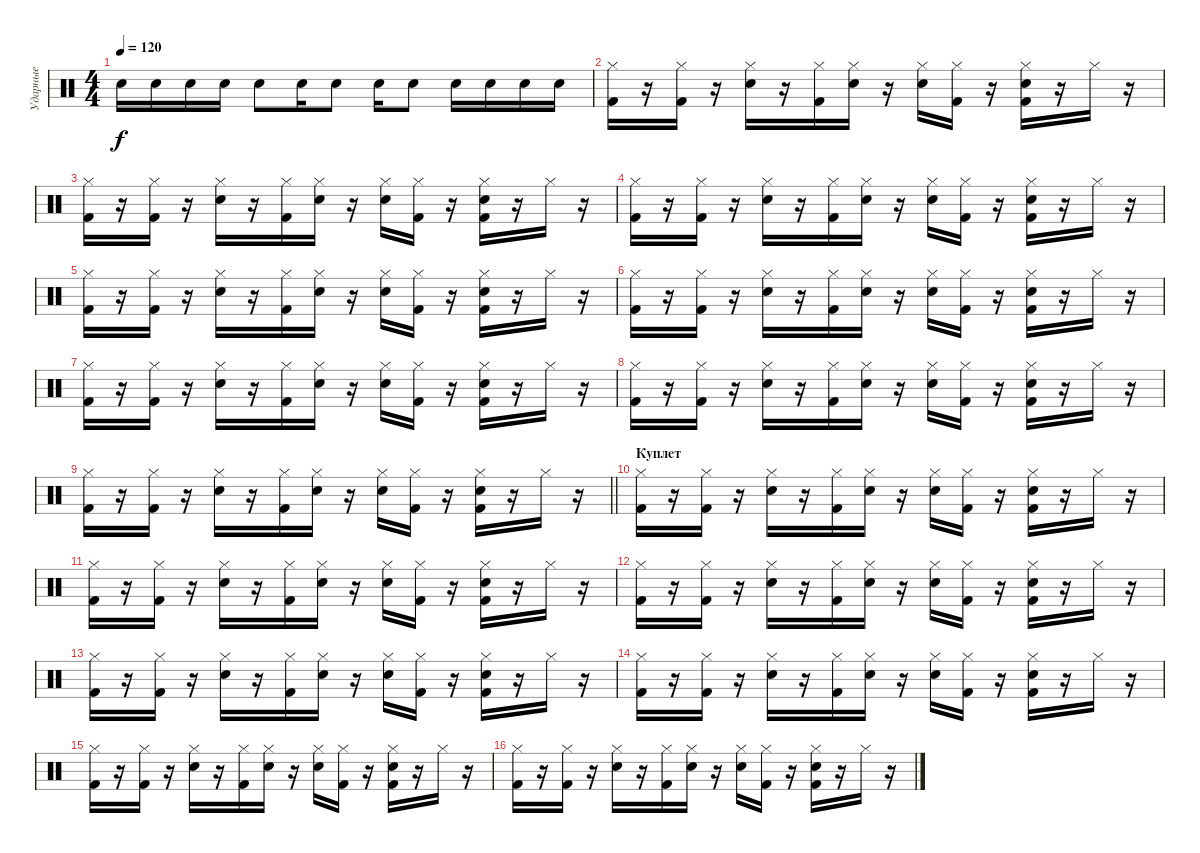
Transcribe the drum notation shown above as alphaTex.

\track ("Ударные" "Ударные") {instrument percussion}
\staff {score}
\articulation defaults
\ts (4 4)
\tempo 120
\clef neutral
\ks c "Snare (hit) 2".16{dy f volume 14} "Snare (hit) 2".16 "Snare (hit) 2".16 "Snare (hit) 2".16 "Electric Snare (hit)".8 "Snare (hit) 2".16 "Electric Snare (hit)".8 "Snare (hit) 2".16 "Electric Snare (hit)".8 "Electric Snare (hit)".16 "Electric Snare (hit)".16 "Electric Snare (hit)".16 "Electric Snare (hit)".16
|
("Hi-Hat (closed)" "Kick (hit) 2").16 r.16 ("Hi-Hat (closed)" "Kick (hit) 2").16 r.16 ("Hi-Hat (closed)" "Electric Snare (hit)").16 r.16 ("Hi-Hat (closed)" "Kick (hit) 2").16 ("Hi-Hat (closed)" "Electric Snare (hit)").16 r.16 ("Hi-Hat (closed)" "Electric Snare (hit)").16 ("Hi-Hat (closed)" "Kick (hit) 2").16 r.16 ("Hi-Hat (closed)" "Electric Snare (hit)" "Kick (hit) 2").16 r.16 "Hi-Hat (closed)".16 r.16 |
("Hi-Hat (closed)" "Kick (hit) 2").16 r.16 ("Hi-Hat (closed)" "Kick (hit) 2").16 r.16 ("Hi-Hat (closed)" "Electric Snare (hit)").16 r.16 ("Hi-Hat (closed)" "Kick (hit) 2").16 ("Hi-Hat (closed)" "Electric Snare (hit)").16 r.16 ("Hi-Hat (closed)" "Electric Snare (hit)").16 ("Hi-Hat (closed)" "Kick (hit) 2").16 r.16 ("Hi-Hat (closed)" "Electric Snare (hit)" "Kick (hit) 2").16 r.16 "Hi-Hat (closed)".16 r.16 |
("Hi-Hat (closed)" "Kick (hit) 2").16 r.16 ("Hi-Hat (closed)" "Kick (hit) 2").16 r.16 ("Hi-Hat (closed)" "Electric Snare (hit)").16 r.16 ("Hi-Hat (closed)" "Kick (hit) 2").16 ("Hi-Hat (closed)" "Electric Snare (hit)").16 r.16 ("Hi-Hat (closed)" "Electric Snare (hit)").16 ("Hi-Hat (closed)" "Kick (hit) 2").16 r.16 ("Hi-Hat (closed)" "Electric Snare (hit)" "Kick (hit) 2").16 r.16 "Hi-Hat (closed)".16 r.16 |
("Hi-Hat (closed)" "Kick (hit) 2").16 r.16 ("Hi-Hat (closed)" "Kick (hit) 2").16 r.16 ("Hi-Hat (closed)" "Electric Snare (hit)").16 r.16 ("Hi-Hat (closed)" "Kick (hit) 2").16 ("Hi-Hat (closed)" "Electric Snare (hit)").16 r.16 ("Hi-Hat (closed)" "Electric Snare (hit)").16 ("Hi-Hat (closed)" "Kick (hit) 2").16 r.16 ("Hi-Hat (closed)" "Electric Snare (hit)" "Kick (hit) 2").16 r.16 "Hi-Hat (closed)".16 r.16 |
("Hi-Hat (closed)" "Kick (hit) 2").16 r.16 ("Hi-Hat (closed)" "Kick (hit) 2").16 r.16 ("Hi-Hat (closed)" "Electric Snare (hit)").16 r.16 ("Hi-Hat (closed)" "Kick (hit) 2").16 ("Hi-Hat (closed)" "Electric Snare (hit)").16 r.16 ("Hi-Hat (closed)" "Electric Snare (hit)").16 ("Hi-Hat (closed)" "Kick (hit) 2").16 r.16 ("Hi-Hat (closed)" "Electric Snare (hit)" "Kick (hit) 2").16 r.16 "Hi-Hat (closed)".16 r.16 |
("Hi-Hat (closed)" "Kick (hit) 2").16 r.16 ("Hi-Hat (closed)" "Kick (hit) 2").16 r.16 ("Hi-Hat (closed)" "Electric Snare (hit)").16 r.16 ("Hi-Hat (closed)" "Kick (hit) 2").16 ("Hi-Hat (closed)" "Electric Snare (hit)").16 r.16 ("Hi-Hat (closed)" "Electric Snare (hit)").16 ("Hi-Hat (closed)" "Kick (hit) 2").16 r.16 ("Hi-Hat (closed)" "Electric Snare (hit)" "Kick (hit) 2").16 r.16 "Hi-Hat (closed)".16 r.16 |
("Hi-Hat (closed)" "Kick (hit) 2").16 r.16 ("Hi-Hat (closed)" "Kick (hit) 2").16 r.16 ("Hi-Hat (closed)" "Electric Snare (hit)").16 r.16 ("Hi-Hat (closed)" "Kick (hit) 2").16 ("Hi-Hat (closed)" "Electric Snare (hit)").16 r.16 ("Hi-Hat (closed)" "Electric Snare (hit)").16 ("Hi-Hat (closed)" "Kick (hit) 2").16 r.16 ("Hi-Hat (closed)" "Electric Snare (hit)" "Kick (hit) 2").16 r.16 "Hi-Hat (closed)".16 r.16 |
\barLineRight lightlight
("Hi-Hat (closed)" "Kick (hit) 2").16 r.16 ("Hi-Hat (closed)" "Kick (hit) 2").16 r.16 ("Hi-Hat (closed)" "Electric Snare (hit)").16 r.16 ("Hi-Hat (closed)" "Kick (hit) 2").16 ("Hi-Hat (closed)" "Electric Snare (hit)").16 r.16 ("Hi-Hat (closed)" "Electric Snare (hit)").16 ("Hi-Hat (closed)" "Kick (hit) 2").16 r.16 ("Hi-Hat (closed)" "Electric Snare (hit)" "Kick (hit) 2").16 r.16 "Hi-Hat (closed)".16 r.16 |
\section ("" "Куплет")
("Hi-Hat (closed)" "Kick (hit) 2").16 r.16 ("Hi-Hat (closed)" "Kick (hit) 2").16 r.16 ("Hi-Hat (closed)" "Electric Snare (hit)").16 r.16 ("Hi-Hat (closed)" "Kick (hit) 2").16 ("Hi-Hat (closed)" "Electric Snare (hit)").16 r.16 ("Hi-Hat (closed)" "Electric Snare (hit)").16 ("Hi-Hat (closed)" "Kick (hit) 2").16 r.16 ("Hi-Hat (closed)" "Electric Snare (hit)" "Kick (hit) 2").16 r.16 "Hi-Hat (closed)".16 r.16 |
("Hi-Hat (closed)" "Kick (hit) 2").16 r.16 ("Hi-Hat (closed)" "Kick (hit) 2").16 r.16 ("Hi-Hat (closed)" "Electric Snare (hit)").16 r.16 ("Hi-Hat (closed)" "Kick (hit) 2").16 ("Hi-Hat (closed)" "Electric Snare (hit)").16 r.16 ("Hi-Hat (closed)" "Electric Snare (hit)").16 ("Hi-Hat (closed)" "Kick (hit) 2").16 r.16 ("Hi-Hat (closed)" "Electric Snare (hit)" "Kick (hit) 2").16 r.16 "Hi-Hat (closed)".16 r.16 |
("Hi-Hat (closed)" "Kick (hit) 2").16 r.16 ("Hi-Hat (closed)" "Kick (hit) 2").16 r.16 ("Hi-Hat (closed)" "Electric Snare (hit)").16 r.16 ("Hi-Hat (closed)" "Kick (hit) 2").16 ("Hi-Hat (closed)" "Electric Snare (hit)").16 r.16 ("Hi-Hat (closed)" "Electric Snare (hit)").16 ("Hi-Hat (closed)" "Kick (hit) 2").16 r.16 ("Hi-Hat (closed)" "Electric Snare (hit)" "Kick (hit) 2").16 r.16 "Hi-Hat (closed)".16 r.16 |
("Hi-Hat (closed)" "Kick (hit) 2").16 r.16 ("Hi-Hat (closed)" "Kick (hit) 2").16 r.16 ("Hi-Hat (closed)" "Electric Snare (hit)").16 r.16 ("Hi-Hat (closed)" "Kick (hit) 2").16 ("Hi-Hat (closed)" "Electric Snare (hit)").16 r.16 ("Hi-Hat (closed)" "Electric Snare (hit)").16 ("Hi-Hat (closed)" "Kick (hit) 2").16 r.16 ("Hi-Hat (closed)" "Electric Snare (hit)" "Kick (hit) 2").16 r.16 "Hi-Hat (closed)".16 r.16 |
("Hi-Hat (closed)" "Kick (hit) 2").16 r.16 ("Hi-Hat (closed)" "Kick (hit) 2").16 r.16 ("Hi-Hat (closed)" "Electric Snare (hit)").16 r.16 ("Hi-Hat (closed)" "Kick (hit) 2").16 ("Hi-Hat (closed)" "Electric Snare (hit)").16 r.16 ("Hi-Hat (closed)" "Electric Snare (hit)").16 ("Hi-Hat (closed)" "Kick (hit) 2").16 r.16 ("Hi-Hat (closed)" "Electric Snare (hit)" "Kick (hit) 2").16 r.16 "Hi-Hat (closed)".16 r.16 |
("Hi-Hat (closed)" "Kick (hit) 2").16 r.16 ("Hi-Hat (closed)" "Kick (hit) 2").16 r.16 ("Hi-Hat (closed)" "Electric Snare (hit)").16 r.16 ("Hi-Hat (closed)" "Kick (hit) 2").16 ("Hi-Hat (closed)" "Electric Snare (hit)").16 r.16 ("Hi-Hat (closed)" "Electric Snare (hit)").16 ("Hi-Hat (closed)" "Kick (hit) 2").16 r.16 ("Hi-Hat (closed)" "Electric Snare (hit)" "Kick (hit) 2").16 r.16 "Hi-Hat (closed)".16 r.16 |
("Hi-Hat (closed)" "Kick (hit) 2").16 r.16 ("Hi-Hat (closed)" "Kick (hit) 2").16 r.16 ("Hi-Hat (closed)" "Electric Snare (hit)").16 r.16 ("Hi-Hat (closed)" "Kick (hit) 2").16 ("Hi-Hat (closed)" "Electric Snare (hit)").16 r.16 ("Hi-Hat (closed)" "Electric Snare (hit)").16 ("Hi-Hat (closed)" "Kick (hit) 2").16 r.16 ("Hi-Hat (closed)" "Electric Snare (hit)" "Kick (hit) 2").16 r.16 "Hi-Hat (closed)".16 r.16
